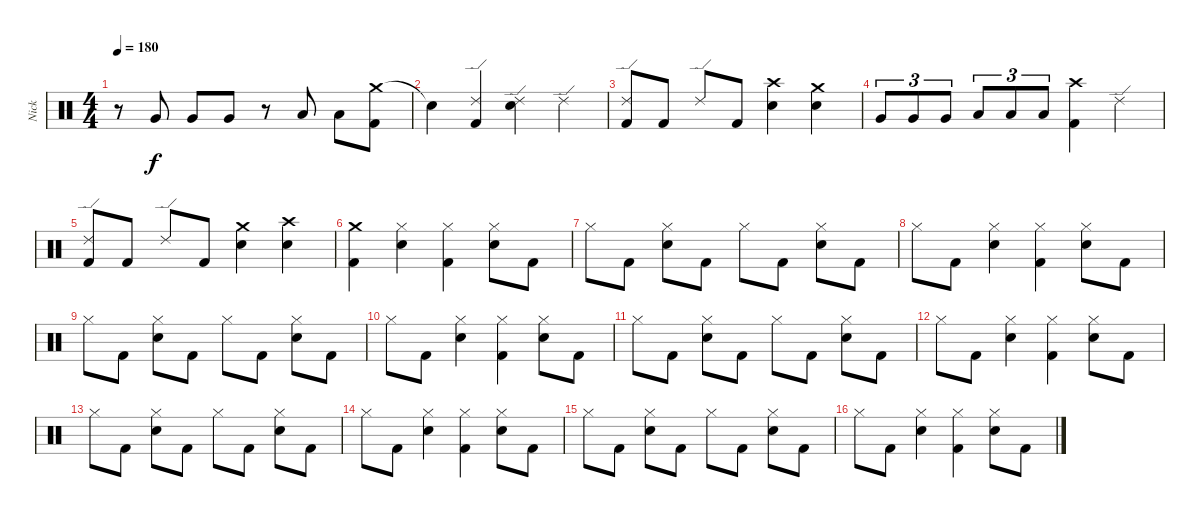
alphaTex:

\track ("Nick" "Nick") {instrument percussion}
\staff {score}
\articulation defaults
\ts (4 4)
\tempo 180
\clef neutral
\ks c
r.8{dy f} "Very Low Tom (hit)".8 "Very Low Tom (hit)".8 "Very Low Tom (hit)".8 r.8 "Low Floor Tom (hit)".8 "Low Floor Tom (hit)".8 ("Crash medium (hit)" "Kick (hit) 2").8 |
"Snare (hit)"{t}.4 ("Ride (edge) 2" "Kick (hit) 2").4 ("Ride (edge) 2" "Electric Snare (hit)").4 "Ride (edge) 2".4 |
("Ride (edge) 2" "Kick (hit) 2").8 "Kick (hit) 2".8 "Ride (edge) 2".8 "Kick (hit) 2".8 ("Crash high (hit)" "Electric Snare (hit)").4 ("Crash medium (hit)" "Electric Snare (hit)").4 |
"Very Low Tom (hit)".8{tu (3 2)} "Very Low Tom (hit)".8{tu (3 2)} "Very Low Tom (hit)".8{tu (3 2)} "Low Floor Tom (hit)".8{tu (3 2)} "Low Floor Tom (hit)".8{tu (3 2)} "Low Floor Tom (hit)".8{tu (3 2)} ("Crash high (hit)" "Kick (hit) 2").4 "Ride (edge) 2".4 |
("Ride (edge) 2" "Kick (hit) 2").8 "Kick (hit) 2".8 "Ride (edge) 2".8 "Kick (hit) 2".8 ("Crash medium (hit)" "Electric Snare (hit)").4 ("Crash high (hit)" "Electric Snare (hit)").4 |
("Crash medium (hit)" "Kick (hit) 2").4 ("Hi-Hat (closed)" "Electric Snare (hit)").4 ("Hi-Hat (closed)" "Kick (hit) 2").4 ("Hi-Hat (closed)" "Electric Snare (hit)").8 "Kick (hit) 2".8 |
"Hi-Hat (closed)".8 "Kick (hit) 2".8 ("Hi-Hat (closed)" "Electric Snare (hit)").8 "Kick (hit) 2".8 "Hi-Hat (closed)".8 "Kick (hit) 2".8 ("Hi-Hat (closed)" "Electric Snare (hit)").8 "Kick (hit) 2".8 |
"Hi-Hat (closed)".8 "Kick (hit) 2".8 ("Hi-Hat (closed)" "Electric Snare (hit)").4 ("Hi-Hat (closed)" "Kick (hit) 2").4 ("Hi-Hat (closed)" "Electric Snare (hit)").8 "Kick (hit) 2".8 |
"Hi-Hat (closed)".8 "Kick (hit) 2".8 ("Hi-Hat (closed)" "Electric Snare (hit)").8 "Kick (hit) 2".8 "Hi-Hat (closed)".8 "Kick (hit) 2".8 ("Hi-Hat (closed)" "Electric Snare (hit)").8 "Kick (hit) 2".8 |
"Hi-Hat (closed)".8 "Kick (hit) 2".8 ("Hi-Hat (closed)" "Electric Snare (hit)").4 ("Hi-Hat (closed)" "Kick (hit) 2").4 ("Hi-Hat (closed)" "Electric Snare (hit)").8 "Kick (hit) 2".8 |
"Hi-Hat (closed)".8 "Kick (hit) 2".8 ("Hi-Hat (closed)" "Electric Snare (hit)").8 "Kick (hit) 2".8 "Hi-Hat (closed)".8 "Kick (hit) 2".8 ("Hi-Hat (closed)" "Electric Snare (hit)").8 "Kick (hit) 2".8 |
"Hi-Hat (closed)".8 "Kick (hit) 2".8 ("Hi-Hat (closed)" "Electric Snare (hit)").4 ("Hi-Hat (closed)" "Kick (hit) 2").4 ("Hi-Hat (closed)" "Electric Snare (hit)").8 "Kick (hit) 2".8 |
"Hi-Hat (closed)".8 "Kick (hit) 2".8 ("Hi-Hat (closed)" "Electric Snare (hit)").8 "Kick (hit) 2".8 "Hi-Hat (closed)".8 "Kick (hit) 2".8 ("Hi-Hat (closed)" "Electric Snare (hit)").8 "Kick (hit) 2".8 |
"Hi-Hat (closed)".8 "Kick (hit) 2".8 ("Hi-Hat (closed)" "Electric Snare (hit)").4 ("Hi-Hat (closed)" "Kick (hit) 2").4 ("Hi-Hat (closed)" "Electric Snare (hit)").8 "Kick (hit) 2".8 |
"Hi-Hat (closed)".8 "Kick (hit) 2".8 ("Hi-Hat (closed)" "Electric Snare (hit)").8 "Kick (hit) 2".8 "Hi-Hat (closed)".8 "Kick (hit) 2".8 ("Hi-Hat (closed)" "Electric Snare (hit)").8 "Kick (hit) 2".8 |
"Hi-Hat (closed)".8 "Kick (hit) 2".8 ("Hi-Hat (closed)" "Electric Snare (hit)").4 ("Hi-Hat (closed)" "Kick (hit) 2").4 ("Hi-Hat (closed)" "Electric Snare (hit)").8 "Kick (hit) 2".8
